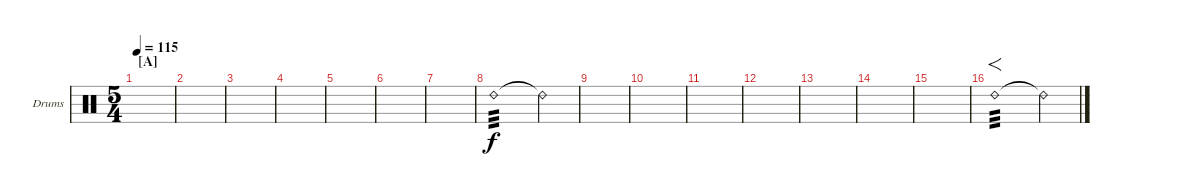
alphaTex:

\defaultSystemsLayout 4
\bracketExtendMode groupsimilarinstruments
\firstSystemTrackNameOrientation horizontal
\otherSystemsTrackNameOrientation horizontal
\track ("Drumkit" "Drums") {instrument percussion}
\staff {score}
\articulation defaults
\ts (5 4)
\beaming (8 3 3 4)
\section ("A" "")
\tempo 115
\clef neutral
\scale
0.472222
\ks c
|
\scale
0.263889 |
\scale
0.263889 |
\scale
0.333333 |
\scale
0.333333 |
\scale
0.333333 |
\scale
0.333333 |
\scale
0.333333 "Ride (bell) 2".1{tp 3} "Ride (bell) 2"{t}.4 |
\scale
0.333333 |
\scale
0.333333 |
\scale
0.333333 |
\scale
0.333333 |
\scale
0.333333 |
\scale
0.333333 |
\scale
0.333333 |
\scale
0.218391 "Ride (bell) 2".1{f tp 3} "Ride (bell) 2"{t}.4
